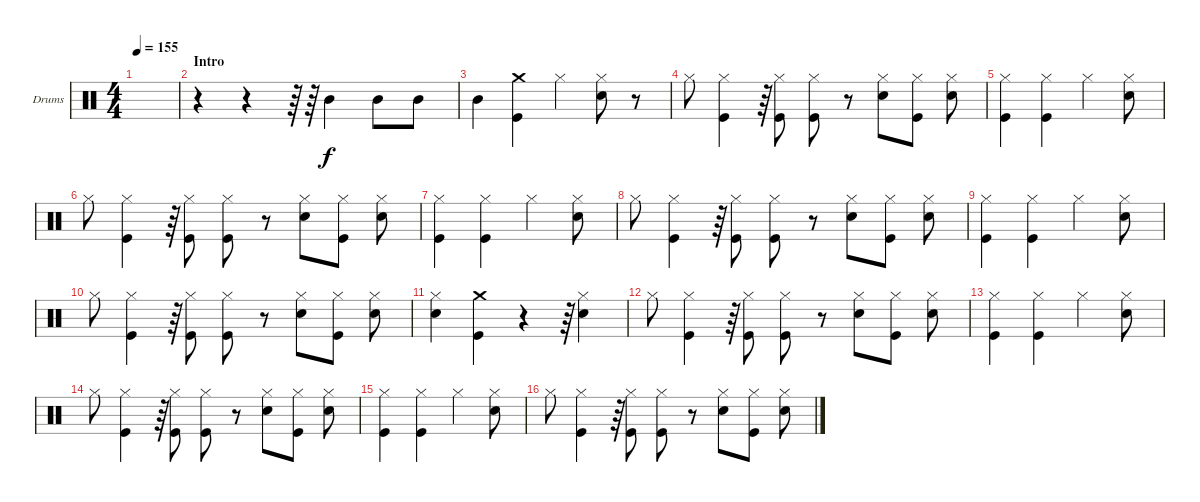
\defaultSystemsLayout 4
\bracketExtendMode groupsimilarinstruments
\firstSystemTrackNameOrientation horizontal
\otherSystemsTrackNameOrientation horizontal
\track ("Drum" "Drums") {instrument percussion}
\staff {score}
\articulation defaults
\ts (4 4)
\tempo 155
\clef neutral
\scale
0.474178
\ks c
|
\section ("" "Intro")
\scale
0.262911 r.4 r.4 r.64 r.64 "Mid Tom (hit)".4 "Mid Tom (hit)".8 "Mid Tom (hit)".8 |
\scale
0.262911 "Mid Tom (hit)".4 ("Crash medium (hit)" "Kick (hit)").4 "Hi-Hat (closed)".4 ("Hi-Hat (closed)" "Snare (hit) 2").8 r.8 |
\scale
0.333333 "Hi-Hat (closed)".8 ("Hi-Hat (closed)" "Kick (hit)").4 r.64 ("Hi-Hat (closed)" "Kick (hit)").8 ("Hi-Hat (closed)" "Kick (hit)").8 r.8 ("Hi-Hat (closed)" "Snare (hit) 2").8 ("Hi-Hat (closed)" "Kick (hit)").8 ("Hi-Hat (closed)" "Snare (hit) 2").8 |
\scale
0.333333 ("Hi-Hat (closed)" "Kick (hit)").4 ("Hi-Hat (closed)" "Kick (hit)").4 "Hi-Hat (closed)".4 ("Hi-Hat (closed)" "Snare (hit) 2").8 |
\scale
0.333333 "Hi-Hat (closed)".8 ("Hi-Hat (closed)" "Kick (hit)").4 r.64 ("Hi-Hat (closed)" "Kick (hit)").8 ("Hi-Hat (closed)" "Kick (hit)").8 r.8 ("Hi-Hat (closed)" "Snare (hit) 2").8 ("Hi-Hat (closed)" "Kick (hit)").8 ("Hi-Hat (closed)" "Snare (hit) 2").8 |
\scale
0.333333 ("Hi-Hat (closed)" "Kick (hit)").4 ("Hi-Hat (closed)" "Kick (hit)").4 "Hi-Hat (closed)".4 ("Hi-Hat (closed)" "Snare (hit) 2").8 |
\scale
0.333333 "Hi-Hat (closed)".8 ("Hi-Hat (closed)" "Kick (hit)").4 r.64 ("Hi-Hat (closed)" "Kick (hit)").8 ("Hi-Hat (closed)" "Kick (hit)").8 r.8 ("Hi-Hat (closed)" "Snare (hit) 2").8 ("Hi-Hat (closed)" "Kick (hit)").8 ("Hi-Hat (closed)" "Snare (hit) 2").8 |
\scale
0.333333 ("Hi-Hat (closed)" "Kick (hit)").4 ("Hi-Hat (closed)" "Kick (hit)").4 "Hi-Hat (closed)".4 ("Hi-Hat (closed)" "Snare (hit) 2").8 |
"Hi-Hat (closed)".8 ("Hi-Hat (closed)" "Kick (hit)").4 r.64 ("Hi-Hat (closed)" "Kick (hit)").8 ("Hi-Hat (closed)" "Kick (hit)").8 r.8 ("Hi-Hat (closed)" "Snare (hit) 2").8 ("Hi-Hat (closed)" "Kick (hit)").8 ("Hi-Hat (closed)" "Snare (hit) 2").8 |
("Hi-Hat (closed)" "Snare (hit) 2").4 ("Crash medium (hit)" "Kick (hit)").4 r.4 r.64 ("Hi-Hat (closed)" "Snare (hit) 2").4 |
"Hi-Hat (closed)".8 ("Hi-Hat (closed)" "Kick (hit)").4 r.64 ("Hi-Hat (closed)" "Kick (hit)").8 ("Hi-Hat (closed)" "Kick (hit)").8 r.8 ("Hi-Hat (closed)" "Snare (hit) 2").8 ("Hi-Hat (closed)" "Kick (hit)").8 ("Hi-Hat (closed)" "Snare (hit) 2").8 |
("Hi-Hat (closed)" "Kick (hit)").4 ("Hi-Hat (closed)" "Kick (hit)").4 "Hi-Hat (closed)".4 ("Hi-Hat (closed)" "Snare (hit) 2").8 |
"Hi-Hat (closed)".8 ("Hi-Hat (closed)" "Kick (hit)").4 r.64 ("Hi-Hat (closed)" "Kick (hit)").8 ("Hi-Hat (closed)" "Kick (hit)").8 r.8 ("Hi-Hat (closed)" "Snare (hit) 2").8 ("Hi-Hat (closed)" "Kick (hit)").8 ("Hi-Hat (closed)" "Snare (hit) 2").8 |
("Hi-Hat (closed)" "Kick (hit)").4 ("Hi-Hat (closed)" "Kick (hit)").4 "Hi-Hat (closed)".4 ("Hi-Hat (closed)" "Snare (hit) 2").8 |
"Hi-Hat (closed)".8 ("Hi-Hat (closed)" "Kick (hit)").4 r.64 ("Hi-Hat (closed)" "Kick (hit)").8 ("Hi-Hat (closed)" "Kick (hit)").8 r.8 ("Hi-Hat (closed)" "Snare (hit) 2").8 ("Hi-Hat (closed)" "Kick (hit)").8 ("Hi-Hat (closed)" "Snare (hit) 2").8
